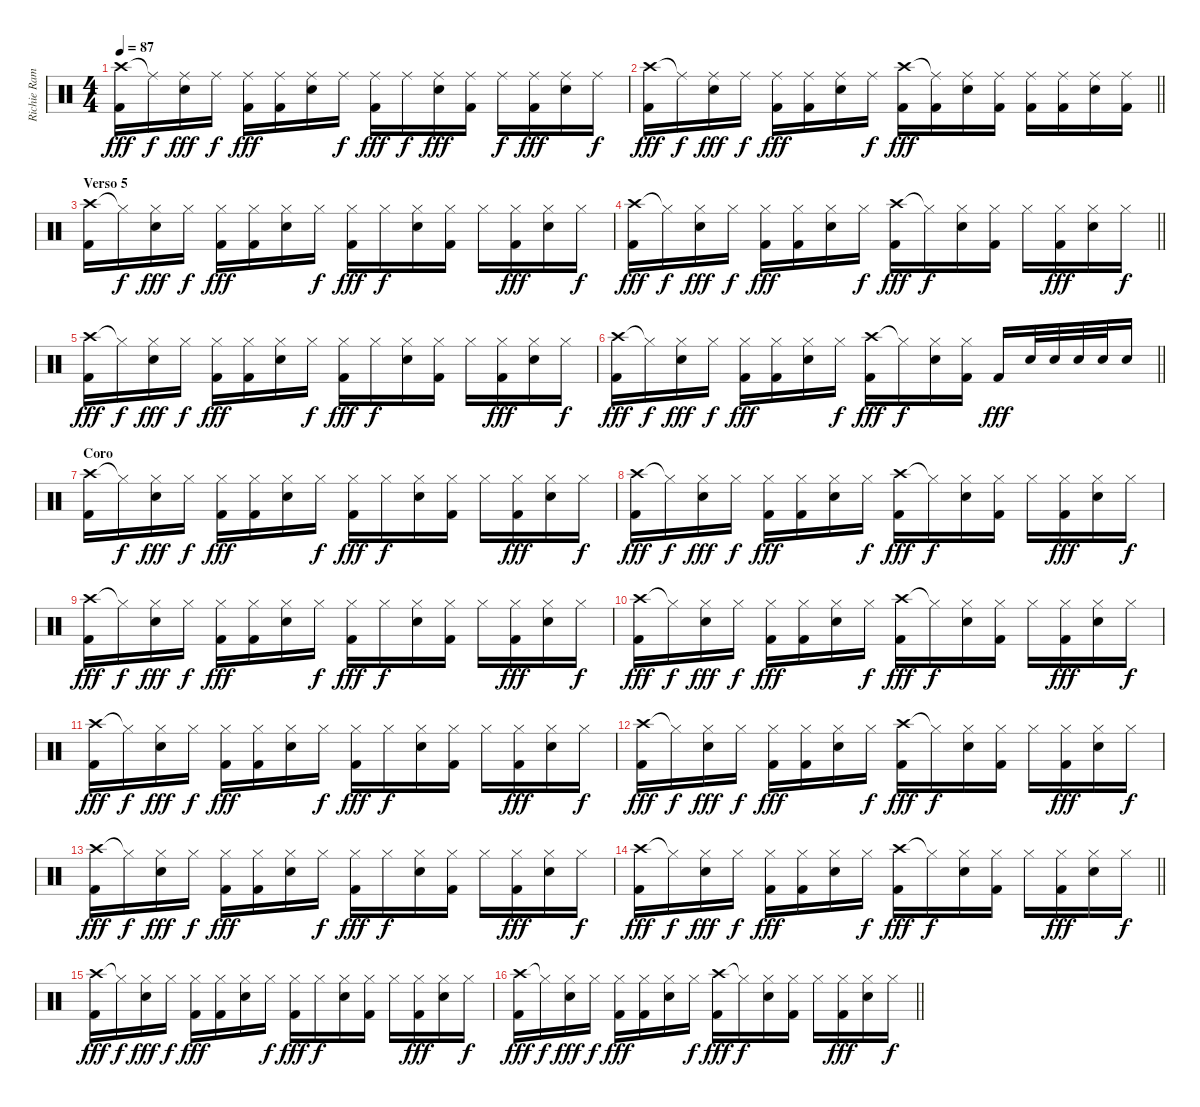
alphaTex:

\track ("Richie Ramone " "Richie Ram") {instrument percussion}
\staff {score}
\articulation defaults
\ts (4 4)
\tempo 87
\clef neutral
\ks c
("Crash high (hit)" "Kick (hit) 2").16{dy fff} "Ride (middle)"{t}.16{dy f} ("Ride (middle)" "Electric Snare (hit)").16{dy fff} "Ride (middle)".16{dy f} ("Ride (middle)" "Kick (hit) 2").16{dy fff} ("Ride (middle)" "Kick (hit) 2").16 ("Ride (middle)" "Electric Snare (hit)").16 "Ride (middle)".16{dy f} ("Ride (middle)" "Kick (hit) 2").16{dy fff} "Ride (middle)".16{dy f} ("Ride (middle)" "Electric Snare (hit)").16{dy fff} ("Ride (middle)" "Kick (hit) 2").16 "Ride (middle)".16{dy f} ("Ride (middle)" "Kick (hit) 2").16{dy fff} ("Ride (middle)" "Electric Snare (hit)").16 "Ride (middle)".16{dy f} |
\barLineRight lightlight
("Crash high (hit)" "Kick (hit) 2").16{dy fff} "Ride (middle)"{t}.16{dy f} ("Ride (middle)" "Electric Snare (hit)").16{dy fff} "Ride (middle)".16{dy f} ("Ride (middle)" "Kick (hit) 2").16{dy fff} ("Ride (middle)" "Kick (hit) 2").16 ("Ride (middle)" "Electric Snare (hit)").16 "Ride (middle)".16{dy f} ("Crash high (hit)" "Kick (hit) 2").16{dy fff} ("Ride (middle)"{t} "Kick (hit) 2").16 ("Ride (middle)" "Electric Snare (hit)").16 ("Ride (middle)" "Kick (hit) 2").16 ("Ride (middle)" "Kick (hit) 2").16 ("Ride (middle)" "Kick (hit) 2").16 ("Ride (middle)" "Electric Snare (hit)").16 ("Ride (middle)" "Kick (hit) 2").16 |
\section ("" "Verso 5")
("Crash high (hit)" "Kick (hit) 2").16 "Hi-Hat (closed)"{t}.16{dy f} ("Hi-Hat (closed)" "Electric Snare (hit)").16{dy fff} "Hi-Hat (closed)".16{dy f} ("Hi-Hat (closed)" "Kick (hit) 2").16{dy fff} ("Hi-Hat (closed)" "Kick (hit) 2").16 ("Hi-Hat (closed)" "Electric Snare (hit)").16 "Hi-Hat (closed)".16{dy f} ("Hi-Hat (closed)" "Kick (hit) 2").16{dy fff} "Hi-Hat (closed)".16{dy f} ("Hi-Hat (closed)" "Electric Snare (hit)").16 ("Hi-Hat (closed)" "Kick (hit) 2").16 "Hi-Hat (closed)".16 ("Hi-Hat (closed)" "Kick (hit) 2").16{dy fff} ("Hi-Hat (closed)" "Electric Snare (hit)").16 "Hi-Hat (closed)".16{dy f} |
\barLineRight lightlight
("Crash high (hit)" "Kick (hit) 2").16{dy fff} "Hi-Hat (closed)"{t}.16{dy f} ("Hi-Hat (closed)" "Electric Snare (hit)").16{dy fff} "Hi-Hat (closed)".16{dy f} ("Hi-Hat (closed)" "Kick (hit) 2").16{dy fff} ("Hi-Hat (closed)" "Kick (hit) 2").16 ("Hi-Hat (closed)" "Electric Snare (hit)").16 "Hi-Hat (closed)".16{dy f} ("Crash high (hit)" "Kick (hit) 2").16{dy fff} "Hi-Hat (closed)"{t}.16{dy f} ("Hi-Hat (closed)" "Electric Snare (hit)").16 ("Hi-Hat (closed)" "Kick (hit) 2").16 "Hi-Hat (closed)".16 ("Hi-Hat (closed)" "Kick (hit) 2").16{dy fff} ("Hi-Hat (closed)" "Electric Snare (hit)").16 "Hi-Hat (closed)".16{dy f} |
("Crash high (hit)" "Kick (hit) 2").16{dy fff} "Hi-Hat (closed)"{t}.16{dy f} ("Hi-Hat (closed)" "Electric Snare (hit)").16{dy fff} "Hi-Hat (closed)".16{dy f} ("Hi-Hat (closed)" "Kick (hit) 2").16{dy fff} ("Hi-Hat (closed)" "Kick (hit) 2").16 ("Hi-Hat (closed)" "Electric Snare (hit)").16 "Hi-Hat (closed)".16{dy f} ("Hi-Hat (closed)" "Kick (hit) 2").16{dy fff} "Hi-Hat (closed)".16{dy f} ("Hi-Hat (closed)" "Electric Snare (hit)").16 ("Hi-Hat (closed)" "Kick (hit) 2").16 "Hi-Hat (closed)".16 ("Hi-Hat (closed)" "Kick (hit) 2").16{dy fff} ("Hi-Hat (closed)" "Electric Snare (hit)").16 "Hi-Hat (closed)".16{dy f} |
\barLineRight lightlight
("Crash high (hit)" "Kick (hit) 2").16{dy fff} "Hi-Hat (closed)"{t}.16{dy f} ("Hi-Hat (closed)" "Electric Snare (hit)").16{dy fff} "Hi-Hat (closed)".16{dy f} ("Hi-Hat (closed)" "Kick (hit) 2").16{dy fff} ("Hi-Hat (closed)" "Kick (hit) 2").16 ("Hi-Hat (closed)" "Electric Snare (hit)").16 "Hi-Hat (closed)".16{dy f} ("Crash high (hit)" "Kick (hit) 2").16{dy fff} "Hi-Hat (closed)"{t}.16{dy f} ("Hi-Hat (closed)" "Electric Snare (hit)").16 ("Hi-Hat (closed)" "Kick (hit) 2").16 "Kick (hit) 2".16{dy fff} "Electric Snare (hit)".32 "Electric Snare (hit)".32 "Electric Snare (hit)".32 "Electric Snare (hit)".32 "Electric Snare (hit)".16 |
\section ("" "Coro")
("Crash high (hit)" "Kick (hit) 2").16 "Hi-Hat (closed)"{t}.16{dy f} ("Hi-Hat (closed)" "Electric Snare (hit)").16{dy fff} "Hi-Hat (closed)".16{dy f} ("Hi-Hat (closed)" "Kick (hit) 2").16{dy fff} ("Hi-Hat (closed)" "Kick (hit) 2").16 ("Hi-Hat (closed)" "Electric Snare (hit)").16 "Hi-Hat (closed)".16{dy f} ("Hi-Hat (closed)" "Kick (hit) 2").16{dy fff} "Hi-Hat (closed)".16{dy f} ("Hi-Hat (closed)" "Electric Snare (hit)").16 ("Hi-Hat (closed)" "Kick (hit) 2").16 "Hi-Hat (closed)".16 ("Hi-Hat (closed)" "Kick (hit) 2").16{dy fff} ("Hi-Hat (closed)" "Electric Snare (hit)").16 "Hi-Hat (closed)".16{dy f} |
("Crash high (hit)" "Kick (hit) 2").16{dy fff} "Hi-Hat (closed)"{t}.16{dy f} ("Hi-Hat (closed)" "Electric Snare (hit)").16{dy fff} "Hi-Hat (closed)".16{dy f} ("Hi-Hat (closed)" "Kick (hit) 2").16{dy fff} ("Hi-Hat (closed)" "Kick (hit) 2").16 ("Hi-Hat (closed)" "Electric Snare (hit)").16 "Hi-Hat (closed)".16{dy f} ("Crash high (hit)" "Kick (hit) 2").16{dy fff} "Hi-Hat (closed)"{t}.16{dy f} ("Hi-Hat (closed)" "Electric Snare (hit)").16 ("Hi-Hat (closed)" "Kick (hit) 2").16 "Hi-Hat (closed)".16 ("Hi-Hat (closed)" "Kick (hit) 2").16{dy fff} ("Hi-Hat (closed)" "Electric Snare (hit)").16 "Hi-Hat (closed)".16{dy f} |
("Crash high (hit)" "Kick (hit) 2").16{dy fff} "Hi-Hat (closed)"{t}.16{dy f} ("Hi-Hat (closed)" "Electric Snare (hit)").16{dy fff} "Hi-Hat (closed)".16{dy f} ("Hi-Hat (closed)" "Kick (hit) 2").16{dy fff} ("Hi-Hat (closed)" "Kick (hit) 2").16 ("Hi-Hat (closed)" "Electric Snare (hit)").16 "Hi-Hat (closed)".16{dy f} ("Hi-Hat (closed)" "Kick (hit) 2").16{dy fff} "Hi-Hat (closed)".16{dy f} ("Hi-Hat (closed)" "Electric Snare (hit)").16 ("Hi-Hat (closed)" "Kick (hit) 2").16 "Hi-Hat (closed)".16 ("Hi-Hat (closed)" "Kick (hit) 2").16{dy fff} ("Hi-Hat (closed)" "Electric Snare (hit)").16 "Hi-Hat (closed)".16{dy f} |
("Crash high (hit)" "Kick (hit) 2").16{dy fff} "Hi-Hat (closed)"{t}.16{dy f} ("Hi-Hat (closed)" "Electric Snare (hit)").16{dy fff} "Hi-Hat (closed)".16{dy f} ("Hi-Hat (closed)" "Kick (hit) 2").16{dy fff} ("Hi-Hat (closed)" "Kick (hit) 2").16 ("Hi-Hat (closed)" "Electric Snare (hit)").16 "Hi-Hat (closed)".16{dy f} ("Crash high (hit)" "Kick (hit) 2").16{dy fff} "Hi-Hat (closed)"{t}.16{dy f} ("Hi-Hat (closed)" "Electric Snare (hit)").16 ("Hi-Hat (closed)" "Kick (hit) 2").16 "Hi-Hat (closed)".16 ("Hi-Hat (closed)" "Kick (hit) 2").16{dy fff} ("Hi-Hat (closed)" "Electric Snare (hit)").16 "Hi-Hat (closed)".16{dy f} |
("Crash high (hit)" "Kick (hit) 2").16{dy fff} "Hi-Hat (closed)"{t}.16{dy f} ("Hi-Hat (closed)" "Electric Snare (hit)").16{dy fff} "Hi-Hat (closed)".16{dy f} ("Hi-Hat (closed)" "Kick (hit) 2").16{dy fff} ("Hi-Hat (closed)" "Kick (hit) 2").16 ("Hi-Hat (closed)" "Electric Snare (hit)").16 "Hi-Hat (closed)".16{dy f} ("Hi-Hat (closed)" "Kick (hit) 2").16{dy fff} "Hi-Hat (closed)".16{dy f} ("Hi-Hat (closed)" "Electric Snare (hit)").16 ("Hi-Hat (closed)" "Kick (hit) 2").16 "Hi-Hat (closed)".16 ("Hi-Hat (closed)" "Kick (hit) 2").16{dy fff} ("Hi-Hat (closed)" "Electric Snare (hit)").16 "Hi-Hat (closed)".16{dy f} |
("Crash high (hit)" "Kick (hit) 2").16{dy fff} "Hi-Hat (closed)"{t}.16{dy f} ("Hi-Hat (closed)" "Electric Snare (hit)").16{dy fff} "Hi-Hat (closed)".16{dy f} ("Hi-Hat (closed)" "Kick (hit) 2").16{dy fff} ("Hi-Hat (closed)" "Kick (hit) 2").16 ("Hi-Hat (closed)" "Electric Snare (hit)").16 "Hi-Hat (closed)".16{dy f} ("Crash high (hit)" "Kick (hit) 2").16{dy fff} "Hi-Hat (closed)"{t}.16{dy f} ("Hi-Hat (closed)" "Electric Snare (hit)").16 ("Hi-Hat (closed)" "Kick (hit) 2").16 "Hi-Hat (closed)".16 ("Hi-Hat (closed)" "Kick (hit) 2").16{dy fff} ("Hi-Hat (closed)" "Electric Snare (hit)").16 "Hi-Hat (closed)".16{dy f} |
("Crash high (hit)" "Kick (hit) 2").16{dy fff} "Hi-Hat (closed)"{t}.16{dy f} ("Hi-Hat (closed)" "Electric Snare (hit)").16{dy fff} "Hi-Hat (closed)".16{dy f} ("Hi-Hat (closed)" "Kick (hit) 2").16{dy fff} ("Hi-Hat (closed)" "Kick (hit) 2").16 ("Hi-Hat (closed)" "Electric Snare (hit)").16 "Hi-Hat (closed)".16{dy f} ("Hi-Hat (closed)" "Kick (hit) 2").16{dy fff} "Hi-Hat (closed)".16{dy f} ("Hi-Hat (closed)" "Electric Snare (hit)").16 ("Hi-Hat (closed)" "Kick (hit) 2").16 "Hi-Hat (closed)".16 ("Hi-Hat (closed)" "Kick (hit) 2").16{dy fff} ("Hi-Hat (closed)" "Electric Snare (hit)").16 "Hi-Hat (closed)".16{dy f} |
\barLineRight lightlight
("Crash high (hit)" "Kick (hit) 2").16{dy fff} "Hi-Hat (closed)"{t}.16{dy f} ("Hi-Hat (closed)" "Electric Snare (hit)").16{dy fff} "Hi-Hat (closed)".16{dy f} ("Hi-Hat (closed)" "Kick (hit) 2").16{dy fff} ("Hi-Hat (closed)" "Kick (hit) 2").16 ("Hi-Hat (closed)" "Electric Snare (hit)").16 "Hi-Hat (closed)".16{dy f} ("Crash high (hit)" "Kick (hit) 2").16{dy fff} "Hi-Hat (closed)"{t}.16{dy f} ("Hi-Hat (closed)" "Electric Snare (hit)").16 ("Hi-Hat (closed)" "Kick (hit) 2").16 "Hi-Hat (closed)".16 ("Hi-Hat (closed)" "Kick (hit) 2").16{dy fff} ("Hi-Hat (closed)" "Electric Snare (hit)").16 "Hi-Hat (closed)".16{dy f} |
("Crash high (hit)" "Kick (hit) 2").16{dy fff} "Hi-Hat (closed)"{t}.16{dy f} ("Hi-Hat (closed)" "Electric Snare (hit)").16{dy fff} "Hi-Hat (closed)".16{dy f} ("Hi-Hat (closed)" "Kick (hit) 2").16{dy fff} ("Hi-Hat (closed)" "Kick (hit) 2").16 ("Hi-Hat (closed)" "Electric Snare (hit)").16 "Hi-Hat (closed)".16{dy f} ("Hi-Hat (closed)" "Kick (hit) 2").16{dy fff} "Hi-Hat (closed)".16{dy f} ("Hi-Hat (closed)" "Electric Snare (hit)").16 ("Hi-Hat (closed)" "Kick (hit) 2").16 "Hi-Hat (closed)".16 ("Hi-Hat (closed)" "Kick (hit) 2").16{dy fff} ("Hi-Hat (closed)" "Electric Snare (hit)").16 "Hi-Hat (closed)".16{dy f} |
\barLineRight lightlight
("Crash high (hit)" "Kick (hit) 2").16{dy fff} "Hi-Hat (closed)"{t}.16{dy f} ("Hi-Hat (closed)" "Electric Snare (hit)").16{dy fff} "Hi-Hat (closed)".16{dy f} ("Hi-Hat (closed)" "Kick (hit) 2").16{dy fff} ("Hi-Hat (closed)" "Kick (hit) 2").16 ("Hi-Hat (closed)" "Electric Snare (hit)").16 "Hi-Hat (closed)".16{dy f} ("Crash high (hit)" "Kick (hit) 2").16{dy fff} "Hi-Hat (closed)"{t}.16{dy f} ("Hi-Hat (closed)" "Electric Snare (hit)").16 ("Hi-Hat (closed)" "Kick (hit) 2").16 "Hi-Hat (closed)".16 ("Hi-Hat (closed)" "Kick (hit) 2").16{dy fff} ("Hi-Hat (closed)" "Electric Snare (hit)").16 "Hi-Hat (closed)".16{dy f}
